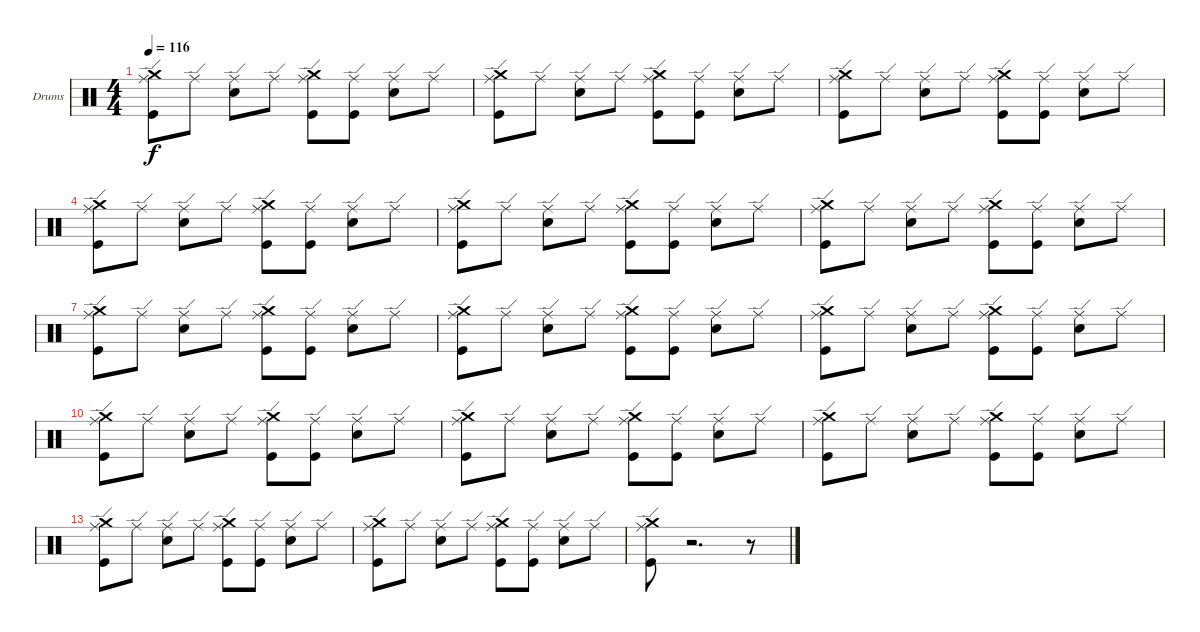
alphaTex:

\bracketExtendMode nobrackets
\firstSystemTrackNameOrientation horizontal
\otherSystemsTrackNameOrientation horizontal
\defaultBarNumberDisplay FirstOfSystem
\track ("Drumkit" "Drums") {instrument percussion}
\staff {score}
\articulation defaults
\ts (4 4)
\tempo 116
\clef neutral
\scale
0.5
\ks c
("Kick (hit)" "Ride (edge)" "Crash medium (hit)").8{dy f} "Ride (edge)".8 ("Snare (hit) 2" "Ride (edge)").8 "Ride (edge)".8 ("Kick (hit)" "Ride (edge)" "Crash medium (hit)").8 ("Kick (hit)" "Ride (edge)").8 ("Snare (hit) 2" "Ride (edge)").8 "Ride (edge)".8 |
\scale
0.5 ("Kick (hit)" "Ride (edge)" "Crash medium (hit)").8 "Ride (edge)".8 ("Snare (hit) 2" "Ride (edge)").8 "Ride (edge)".8 ("Kick (hit)" "Ride (edge)" "Crash medium (hit)").8 ("Kick (hit)" "Ride (edge)").8 ("Snare (hit) 2" "Ride (edge)").8 "Ride (edge)".8 |
\scale
0.5 ("Kick (hit)" "Ride (edge)" "Crash medium (hit)").8 "Ride (edge)".8 ("Snare (hit) 2" "Ride (edge)").8 "Ride (edge)".8 ("Kick (hit)" "Ride (edge)" "Crash medium (hit)").8 ("Kick (hit)" "Ride (edge)").8 ("Snare (hit) 2" "Ride (edge)").8 "Ride (edge)".8 |
\scale
0.5 ("Kick (hit)" "Ride (edge)" "Crash medium (hit)").8 "Ride (edge)".8 ("Snare (hit) 2" "Ride (edge)").8 "Ride (edge)".8 ("Kick (hit)" "Ride (edge)" "Crash medium (hit)").8 ("Kick (hit)" "Ride (edge)").8 ("Snare (hit) 2" "Ride (edge)").8 "Ride (edge)".8 |
("Kick (hit)" "Ride (edge)" "Crash medium (hit)").8 "Ride (edge)".8 ("Snare (hit) 2" "Ride (edge)").8 "Ride (edge)".8 ("Kick (hit)" "Ride (edge)" "Crash medium (hit)").8 ("Kick (hit)" "Ride (edge)").8 ("Snare (hit) 2" "Ride (edge)").8 "Ride (edge)".8 |
("Kick (hit)" "Ride (edge)" "Crash medium (hit)").8 "Ride (edge)".8 ("Snare (hit) 2" "Ride (edge)").8 "Ride (edge)".8 ("Kick (hit)" "Ride (edge)" "Crash medium (hit)").8 ("Kick (hit)" "Ride (edge)").8 ("Snare (hit) 2" "Ride (edge)").8 "Ride (edge)".8 |
("Kick (hit)" "Ride (edge)" "Crash medium (hit)").8 "Ride (edge)".8 ("Snare (hit) 2" "Ride (edge)").8 "Ride (edge)".8 ("Kick (hit)" "Ride (edge)" "Crash medium (hit)").8 ("Kick (hit)" "Ride (edge)").8 ("Snare (hit) 2" "Ride (edge)").8 "Ride (edge)".8 |
("Kick (hit)" "Ride (edge)" "Crash medium (hit)").8 "Ride (edge)".8 ("Snare (hit) 2" "Ride (edge)").8 "Ride (edge)".8 ("Kick (hit)" "Ride (edge)" "Crash medium (hit)").8 ("Kick (hit)" "Ride (edge)").8 ("Snare (hit) 2" "Ride (edge)").8 "Ride (edge)".8 |
("Kick (hit)" "Ride (edge)" "Crash medium (hit)").8 "Ride (edge)".8 ("Snare (hit) 2" "Ride (edge)").8 "Ride (edge)".8 ("Kick (hit)" "Ride (edge)" "Crash medium (hit)").8 ("Kick (hit)" "Ride (edge)").8 ("Snare (hit) 2" "Ride (edge)").8 "Ride (edge)".8 |
("Kick (hit)" "Ride (edge)" "Crash medium (hit)").8 "Ride (edge)".8 ("Snare (hit) 2" "Ride (edge)").8 "Ride (edge)".8 ("Kick (hit)" "Ride (edge)" "Crash medium (hit)").8 ("Kick (hit)" "Ride (edge)").8 ("Snare (hit) 2" "Ride (edge)").8 "Ride (edge)".8 |
("Kick (hit)" "Ride (edge)" "Crash medium (hit)").8 "Ride (edge)".8 ("Snare (hit) 2" "Ride (edge)").8 "Ride (edge)".8 ("Kick (hit)" "Ride (edge)" "Crash medium (hit)").8 ("Kick (hit)" "Ride (edge)").8 ("Snare (hit) 2" "Ride (edge)").8 "Ride (edge)".8 |
("Kick (hit)" "Ride (edge)" "Crash medium (hit)").8 "Ride (edge)".8 ("Snare (hit) 2" "Ride (edge)").8 "Ride (edge)".8 ("Kick (hit)" "Ride (edge)" "Crash medium (hit)").8 ("Kick (hit)" "Ride (edge)").8 ("Snare (hit) 2" "Ride (edge)").8 "Ride (edge)".8 |
("Kick (hit)" "Ride (edge)" "Crash medium (hit)").8 "Ride (edge)".8 ("Snare (hit) 2" "Ride (edge)").8 "Ride (edge)".8 ("Kick (hit)" "Ride (edge)" "Crash medium (hit)").8 ("Kick (hit)" "Ride (edge)").8 ("Snare (hit) 2" "Ride (edge)").8 "Ride (edge)".8 |
("Kick (hit)" "Ride (edge)" "Crash medium (hit)").8 "Ride (edge)".8 ("Snare (hit) 2" "Ride (edge)").8 "Ride (edge)".8 ("Kick (hit)" "Ride (edge)" "Crash medium (hit)").8 ("Kick (hit)" "Ride (edge)").8 ("Snare (hit) 2" "Ride (edge)").8 "Ride (edge)".8 |
("Kick (hit)" "Ride (edge)" "Crash medium (hit)").8 r.2{d} r.8
